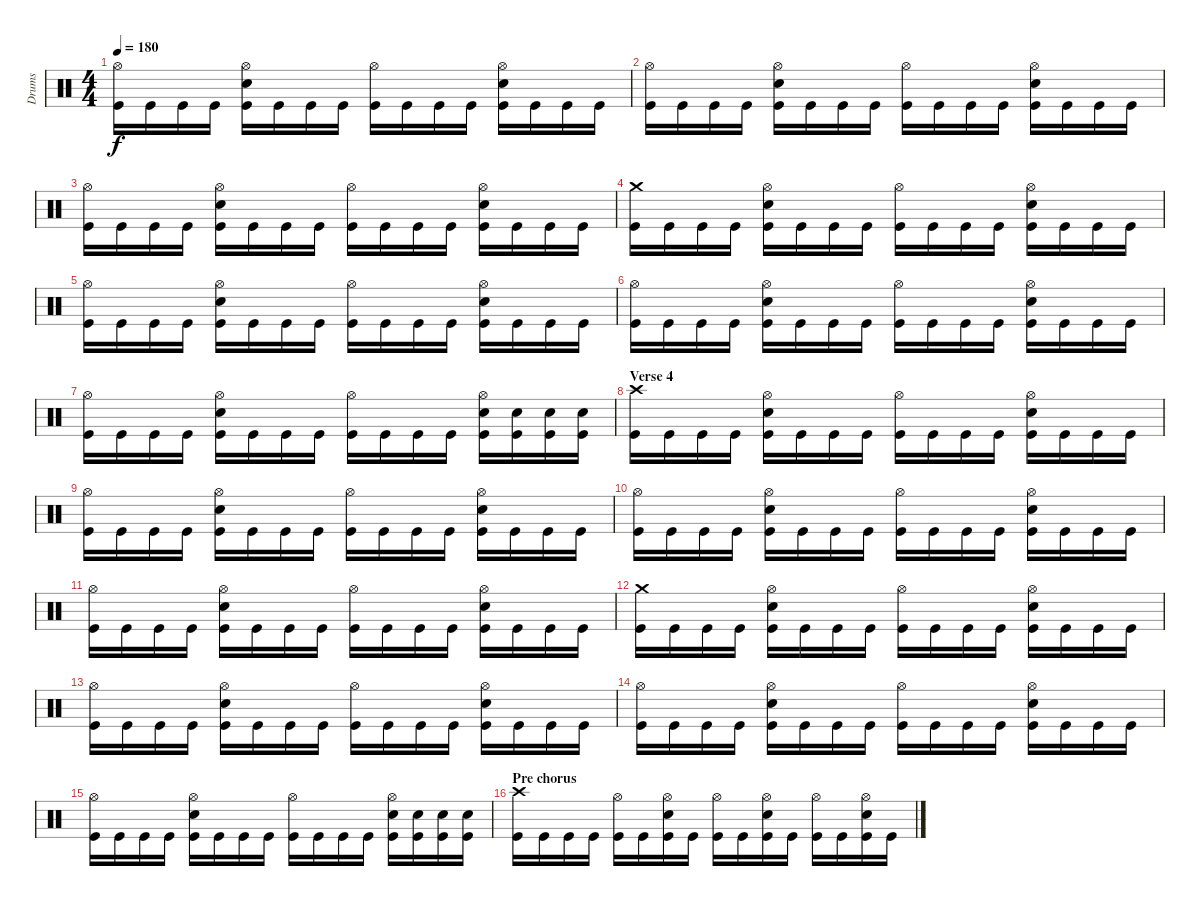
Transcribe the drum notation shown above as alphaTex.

\track ("Drums" "Drums") {instrument percussion}
\staff {score}
\articulation defaults
\ts (4 4)
\tempo 180
\clef neutral
\ks c
("Hi-Hat (open)" "Kick (hit)").16{dy f} "Kick (hit)".16 "Kick (hit)".16 "Kick (hit)".16 ("Hi-Hat (open)" "Snare (hit) 2" "Kick (hit)").16 "Kick (hit)".16 "Kick (hit)".16 "Kick (hit)".16 ("Hi-Hat (open)" "Kick (hit)").16 "Kick (hit)".16 "Kick (hit)".16 "Kick (hit)".16 ("Hi-Hat (open)" "Snare (hit) 2" "Kick (hit)").16 "Kick (hit)".16 "Kick (hit)".16 "Kick (hit)".16 |
("Hi-Hat (open)" "Kick (hit)").16 "Kick (hit)".16 "Kick (hit)".16 "Kick (hit)".16 ("Hi-Hat (open)" "Snare (hit) 2" "Kick (hit)").16 "Kick (hit)".16 "Kick (hit)".16 "Kick (hit)".16 ("Hi-Hat (open)" "Kick (hit)").16 "Kick (hit)".16 "Kick (hit)".16 "Kick (hit)".16 ("Hi-Hat (open)" "Snare (hit) 2" "Kick (hit)").16 "Kick (hit)".16 "Kick (hit)".16 "Kick (hit)".16 |
("Hi-Hat (open)" "Kick (hit)").16 "Kick (hit)".16 "Kick (hit)".16 "Kick (hit)".16 ("Hi-Hat (open)" "Snare (hit) 2" "Kick (hit)").16 "Kick (hit)".16 "Kick (hit)".16 "Kick (hit)".16 ("Hi-Hat (open)" "Kick (hit)").16 "Kick (hit)".16 "Kick (hit)".16 "Kick (hit)".16 ("Hi-Hat (open)" "Snare (hit) 2" "Kick (hit)").16 "Kick (hit)".16 "Kick (hit)".16 "Kick (hit)".16 |
("Crash medium (hit)" "Kick (hit)").16 "Kick (hit)".16 "Kick (hit)".16 "Kick (hit)".16 ("Hi-Hat (open)" "Snare (hit) 2" "Kick (hit)").16 "Kick (hit)".16 "Kick (hit)".16 "Kick (hit)".16 ("Hi-Hat (open)" "Kick (hit)").16 "Kick (hit)".16 "Kick (hit)".16 "Kick (hit)".16 ("Hi-Hat (open)" "Snare (hit) 2" "Kick (hit)").16 "Kick (hit)".16 "Kick (hit)".16 "Kick (hit)".16 |
("Hi-Hat (open)" "Kick (hit)").16 "Kick (hit)".16 "Kick (hit)".16 "Kick (hit)".16 ("Hi-Hat (open)" "Snare (hit) 2" "Kick (hit)").16 "Kick (hit)".16 "Kick (hit)".16 "Kick (hit)".16 ("Hi-Hat (open)" "Kick (hit)").16 "Kick (hit)".16 "Kick (hit)".16 "Kick (hit)".16 ("Hi-Hat (open)" "Snare (hit) 2" "Kick (hit)").16 "Kick (hit)".16 "Kick (hit)".16 "Kick (hit)".16 |
("Hi-Hat (open)" "Kick (hit)").16 "Kick (hit)".16 "Kick (hit)".16 "Kick (hit)".16 ("Hi-Hat (open)" "Snare (hit) 2" "Kick (hit)").16 "Kick (hit)".16 "Kick (hit)".16 "Kick (hit)".16 ("Hi-Hat (open)" "Kick (hit)").16 "Kick (hit)".16 "Kick (hit)".16 "Kick (hit)".16 ("Hi-Hat (open)" "Snare (hit) 2" "Kick (hit)").16 "Kick (hit)".16 "Kick (hit)".16 "Kick (hit)".16 |
("Hi-Hat (open)" "Kick (hit)").16 "Kick (hit)".16 "Kick (hit)".16 "Kick (hit)".16 ("Hi-Hat (open)" "Snare (hit) 2" "Kick (hit)").16 "Kick (hit)".16 "Kick (hit)".16 "Kick (hit)".16 ("Hi-Hat (open)" "Kick (hit)").16 "Kick (hit)".16 "Kick (hit)".16 "Kick (hit)".16 ("Hi-Hat (open)" "Snare (hit) 2" "Kick (hit)").16 ("Snare (hit) 2" "Kick (hit)").16 ("Snare (hit) 2" "Kick (hit)").16 ("Snare (hit) 2" "Kick (hit)").16 |
\section ("" "Verse 4")
("Crash high (hit)" "Kick (hit)").16 "Kick (hit)".16 "Kick (hit)".16 "Kick (hit)".16 ("Hi-Hat (open)" "Snare (hit) 2" "Kick (hit)").16 "Kick (hit)".16 "Kick (hit)".16 "Kick (hit)".16 ("Hi-Hat (open)" "Kick (hit)").16 "Kick (hit)".16 "Kick (hit)".16 "Kick (hit)".16 ("Hi-Hat (open)" "Snare (hit) 2" "Kick (hit)").16 "Kick (hit)".16 "Kick (hit)".16 "Kick (hit)".16 |
("Hi-Hat (open)" "Kick (hit)").16 "Kick (hit)".16 "Kick (hit)".16 "Kick (hit)".16 ("Hi-Hat (open)" "Snare (hit) 2" "Kick (hit)").16 "Kick (hit)".16 "Kick (hit)".16 "Kick (hit)".16 ("Hi-Hat (open)" "Kick (hit)").16 "Kick (hit)".16 "Kick (hit)".16 "Kick (hit)".16 ("Hi-Hat (open)" "Snare (hit) 2" "Kick (hit)").16 "Kick (hit)".16 "Kick (hit)".16 "Kick (hit)".16 |
("Hi-Hat (open)" "Kick (hit)").16 "Kick (hit)".16 "Kick (hit)".16 "Kick (hit)".16 ("Hi-Hat (open)" "Snare (hit) 2" "Kick (hit)").16 "Kick (hit)".16 "Kick (hit)".16 "Kick (hit)".16 ("Hi-Hat (open)" "Kick (hit)").16 "Kick (hit)".16 "Kick (hit)".16 "Kick (hit)".16 ("Hi-Hat (open)" "Snare (hit) 2" "Kick (hit)").16 "Kick (hit)".16 "Kick (hit)".16 "Kick (hit)".16 |
("Hi-Hat (open)" "Kick (hit)").16 "Kick (hit)".16 "Kick (hit)".16 "Kick (hit)".16 ("Hi-Hat (open)" "Snare (hit) 2" "Kick (hit)").16 "Kick (hit)".16 "Kick (hit)".16 "Kick (hit)".16 ("Hi-Hat (open)" "Kick (hit)").16 "Kick (hit)".16 "Kick (hit)".16 "Kick (hit)".16 ("Hi-Hat (open)" "Snare (hit) 2" "Kick (hit)").16 "Kick (hit)".16 "Kick (hit)".16 "Kick (hit)".16 |
("Crash medium (hit)" "Kick (hit)").16 "Kick (hit)".16 "Kick (hit)".16 "Kick (hit)".16 ("Hi-Hat (open)" "Snare (hit) 2" "Kick (hit)").16 "Kick (hit)".16 "Kick (hit)".16 "Kick (hit)".16 ("Hi-Hat (open)" "Kick (hit)").16 "Kick (hit)".16 "Kick (hit)".16 "Kick (hit)".16 ("Hi-Hat (open)" "Snare (hit) 2" "Kick (hit)").16 "Kick (hit)".16 "Kick (hit)".16 "Kick (hit)".16 |
("Hi-Hat (open)" "Kick (hit)").16 "Kick (hit)".16 "Kick (hit)".16 "Kick (hit)".16 ("Hi-Hat (open)" "Snare (hit) 2" "Kick (hit)").16 "Kick (hit)".16 "Kick (hit)".16 "Kick (hit)".16 ("Hi-Hat (open)" "Kick (hit)").16 "Kick (hit)".16 "Kick (hit)".16 "Kick (hit)".16 ("Hi-Hat (open)" "Snare (hit) 2" "Kick (hit)").16 "Kick (hit)".16 "Kick (hit)".16 "Kick (hit)".16 |
("Hi-Hat (open)" "Kick (hit)").16 "Kick (hit)".16 "Kick (hit)".16 "Kick (hit)".16 ("Hi-Hat (open)" "Snare (hit) 2" "Kick (hit)").16 "Kick (hit)".16 "Kick (hit)".16 "Kick (hit)".16 ("Hi-Hat (open)" "Kick (hit)").16 "Kick (hit)".16 "Kick (hit)".16 "Kick (hit)".16 ("Hi-Hat (open)" "Snare (hit) 2" "Kick (hit)").16 "Kick (hit)".16 "Kick (hit)".16 "Kick (hit)".16 |
("Hi-Hat (open)" "Kick (hit)").16 "Kick (hit)".16 "Kick (hit)".16 "Kick (hit)".16 ("Hi-Hat (open)" "Snare (hit) 2" "Kick (hit)").16 "Kick (hit)".16 "Kick (hit)".16 "Kick (hit)".16 ("Hi-Hat (open)" "Kick (hit)").16 "Kick (hit)".16 "Kick (hit)".16 "Kick (hit)".16 ("Hi-Hat (open)" "Snare (hit) 2" "Kick (hit)").16 ("Snare (hit) 2" "Kick (hit)").16 ("Snare (hit) 2" "Kick (hit)").16 ("Snare (hit) 2" "Kick (hit)").16 |
\section ("" "Pre chorus")
("Crash high (hit)" "Kick (hit)").16 "Kick (hit)".16 "Kick (hit)".16 "Kick (hit)".16 ("Hi-Hat (open)" "Kick (hit)").16 "Kick (hit)".16 ("Hi-Hat (open)" "Snare (hit) 2" "Kick (hit)").16 "Kick (hit)".16 ("Hi-Hat (open)" "Kick (hit)").16 "Kick (hit)".16 ("Hi-Hat (open)" "Snare (hit) 2" "Kick (hit)").16 "Kick (hit)".16 ("Hi-Hat (open)" "Kick (hit)").16 "Kick (hit)".16 ("Hi-Hat (open)" "Snare (hit) 2" "Kick (hit)").16 "Kick (hit)".16
